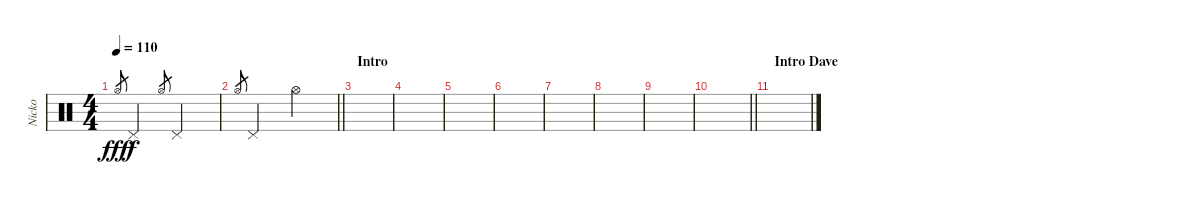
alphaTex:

\track ("Nicko" "Nicko") {instrument percussion}
\staff {score}
\articulation defaults
\ts (4 4)
\tempo 110
\clef neutral
\ks c "Hi-Hat (open)".8{gr dy fff} "Pedal Hi-Hat (hit)".2{dy f} "Hi-Hat (open)".8{gr} "Pedal Hi-Hat (hit)".2
|
\barLineRight lightlight "Hi-Hat (open)".8{gr} "Pedal Hi-Hat (hit)".2 "Hi-Hat (open)".2
|
\section ("" "Intro")
|
|
|
|
|
|
|
\barLineRight lightlight
|
\section ("" "Intro Dave")
